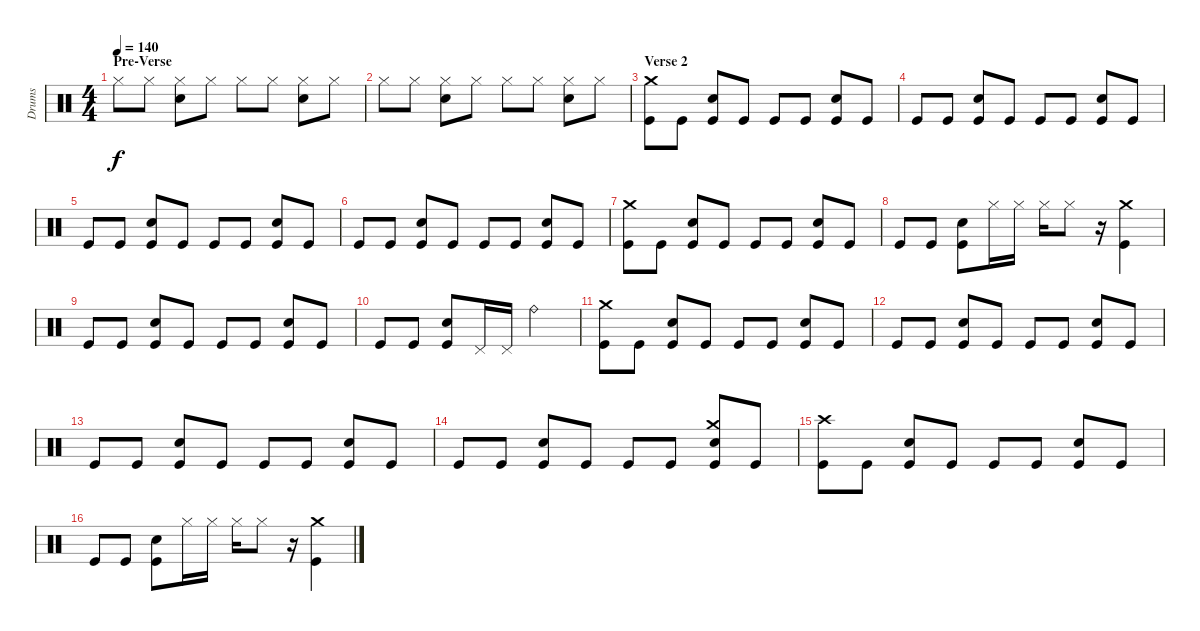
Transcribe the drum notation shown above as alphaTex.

\track ("Drums" "Drums") {instrument percussion}
\staff {score}
\articulation defaults
\ts (4 4)
\section ("" "Pre-Verse")
\tempo 140
\clef neutral
\ks c "Hi-Hat (closed)".8{dy f} "Hi-Hat (closed)".8
("Snare (hit) 2" "Hi-Hat (closed)").8 "Hi-Hat (closed)".8 "Hi-Hat (closed)".8 "Hi-Hat (closed)".8 ("Snare (hit) 2" "Hi-Hat (closed)").8 "Hi-Hat (closed)".8 |
"Hi-Hat (closed)".8 "Hi-Hat (closed)".8 ("Snare (hit) 2" "Hi-Hat (closed)").8 "Hi-Hat (closed)".8 "Hi-Hat (closed)".8 "Hi-Hat (closed)".8 ("Snare (hit) 2" "Hi-Hat (closed)").8 "Hi-Hat (closed)".8 |
\section ("" "Verse 2")
("Crash medium (hit)" "Kick (hit)").8 "Kick (hit)".8 ("Snare (hit) 2" "Kick (hit)").8 "Kick (hit)".8 "Kick (hit)".8 "Kick (hit)".8 ("Snare (hit) 2" "Kick (hit)").8 "Kick (hit)".8 |
"Kick (hit)".8 "Kick (hit)".8 ("Snare (hit) 2" "Kick (hit)").8 "Kick (hit)".8 "Kick (hit)".8 "Kick (hit)".8 ("Snare (hit) 2" "Kick (hit)").8 "Kick (hit)".8 |
"Kick (hit)".8 "Kick (hit)".8 ("Snare (hit) 2" "Kick (hit)").8 "Kick (hit)".8 "Kick (hit)".8 "Kick (hit)".8 ("Snare (hit) 2" "Kick (hit)").8 "Kick (hit)".8 |
"Kick (hit)".8 "Kick (hit)".8 ("Snare (hit) 2" "Kick (hit)").8 "Kick (hit)".8 "Kick (hit)".8 "Kick (hit)".8 ("Snare (hit) 2" "Kick (hit)").8 "Kick (hit)".8 |
("Crash medium (hit)" "Kick (hit)").8 "Kick (hit)".8 ("Snare (hit) 2" "Kick (hit)").8 "Kick (hit)".8 "Kick (hit)".8 "Kick (hit)".8 ("Snare (hit) 2" "Kick (hit)").8 "Kick (hit)".8 |
"Kick (hit)".8 "Kick (hit)".8 ("Snare (hit) 2" "Kick (hit)").8 "Hi-Hat (closed)".16 "Hi-Hat (closed)".16 "Hi-Hat (closed)".16 "Hi-Hat (closed)".8 r.16 ("Crash medium (hit)" "Kick (hit)").4 |
"Kick (hit)".8 "Kick (hit)".8 ("Snare (hit) 2" "Kick (hit)").8 "Kick (hit)".8 "Kick (hit)".8 "Kick (hit)".8 ("Snare (hit) 2" "Kick (hit)").8 "Kick (hit)".8 |
"Kick (hit)".8 "Kick (hit)".8 ("Snare (hit) 2" "Kick (hit)").8 "Pedal Hi-Hat (hit)".16 "Pedal Hi-Hat (hit)".16 "Ride (bell)".2 |
("Crash medium (hit)" "Kick (hit)").8 "Kick (hit)".8 ("Snare (hit) 2" "Kick (hit)").8 "Kick (hit)".8 "Kick (hit)".8 "Kick (hit)".8 ("Snare (hit) 2" "Kick (hit)").8 "Kick (hit)".8 |
"Kick (hit)".8 "Kick (hit)".8 ("Snare (hit) 2" "Kick (hit)").8 "Kick (hit)".8 "Kick (hit)".8 "Kick (hit)".8 ("Snare (hit) 2" "Kick (hit)").8 "Kick (hit)".8 |
"Kick (hit)".8 "Kick (hit)".8 ("Snare (hit) 2" "Kick (hit)").8 "Kick (hit)".8 "Kick (hit)".8 "Kick (hit)".8 ("Snare (hit) 2" "Kick (hit)").8 "Kick (hit)".8 |
"Kick (hit)".8 "Kick (hit)".8 ("Snare (hit) 2" "Kick (hit)").8 "Kick (hit)".8 "Kick (hit)".8 "Kick (hit)".8 ("Crash medium (hit)" "Snare (hit) 2" "Kick (hit)").8 "Kick (hit)".8 |
("Crash high (hit)" "Kick (hit)").8 "Kick (hit)".8 ("Snare (hit) 2" "Kick (hit)").8 "Kick (hit)".8 "Kick (hit)".8 "Kick (hit)".8 ("Snare (hit) 2" "Kick (hit)").8 "Kick (hit)".8 |
"Kick (hit)".8 "Kick (hit)".8 ("Snare (hit) 2" "Kick (hit)").8 "Hi-Hat (closed)".16 "Hi-Hat (closed)".16 "Hi-Hat (closed)".16 "Hi-Hat (closed)".8 r.16 ("Crash medium (hit)" "Kick (hit)").4
